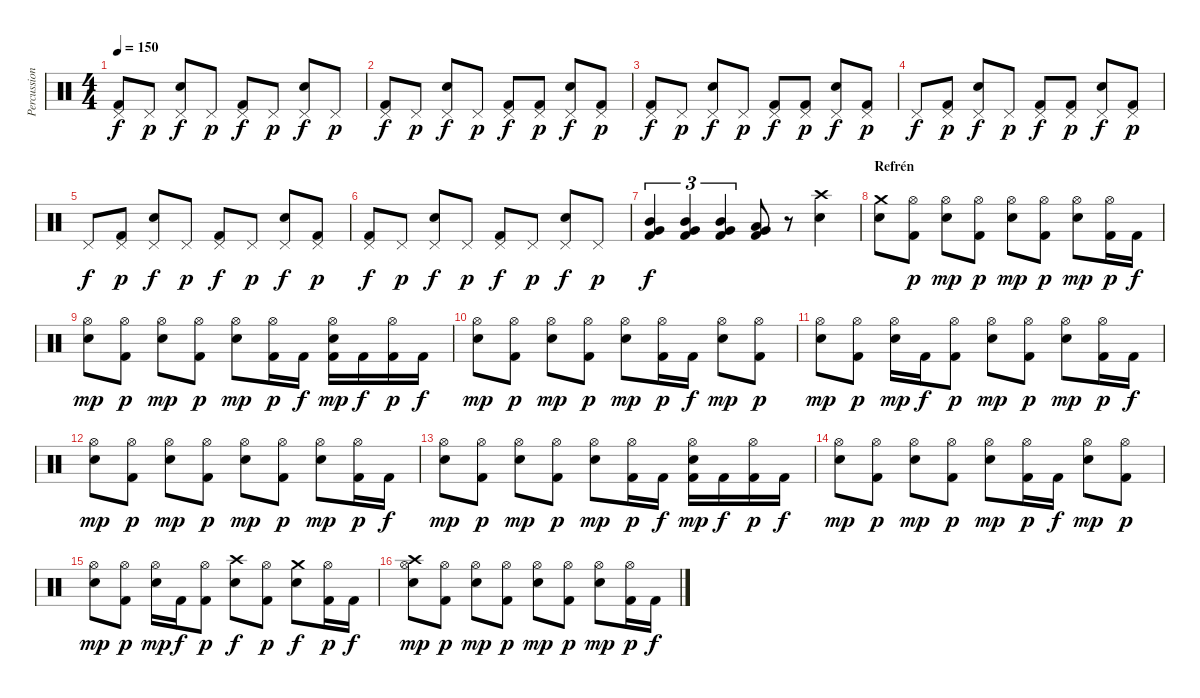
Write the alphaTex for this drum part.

\track ("Percussion" "Percussion") {instrument percussion}
\staff {score}
\articulation defaults
\ts (4 4)
\tempo 150
\clef neutral
\ks c
("Pedal Hi-Hat (hit)" "Kick (hit) 2").8{dy f} "Pedal Hi-Hat (hit)".8{dy p} ("Pedal Hi-Hat (hit)" "Snare (hit) 2").8{dy f} "Pedal Hi-Hat (hit)".8{dy p} ("Pedal Hi-Hat (hit)" "Kick (hit) 2").8{dy f} "Pedal Hi-Hat (hit)".8{dy p} ("Pedal Hi-Hat (hit)" "Snare (hit) 2").8{dy f} "Pedal Hi-Hat (hit)".8{dy p} |
("Pedal Hi-Hat (hit)" "Kick (hit) 2").8{dy f} "Pedal Hi-Hat (hit)".8{dy p} ("Pedal Hi-Hat (hit)" "Snare (hit) 2").8{dy f} "Pedal Hi-Hat (hit)".8{dy p} ("Pedal Hi-Hat (hit)" "Kick (hit) 2").8{dy f} ("Pedal Hi-Hat (hit)" "Kick (hit) 2").8{dy p} ("Pedal Hi-Hat (hit)" "Snare (hit) 2").8{dy f} ("Pedal Hi-Hat (hit)" "Kick (hit) 2").8{dy p} |
("Pedal Hi-Hat (hit)" "Kick (hit) 2").8{dy f} "Pedal Hi-Hat (hit)".8{dy p} ("Pedal Hi-Hat (hit)" "Snare (hit) 2").8{dy f} "Pedal Hi-Hat (hit)".8{dy p} ("Pedal Hi-Hat (hit)" "Kick (hit) 2").8{dy f} ("Pedal Hi-Hat (hit)" "Kick (hit) 2").8{dy p} ("Pedal Hi-Hat (hit)" "Snare (hit) 2").8{dy f} ("Pedal Hi-Hat (hit)" "Kick (hit) 2").8{dy p} |
"Pedal Hi-Hat (hit)".8{dy f} ("Pedal Hi-Hat (hit)" "Kick (hit) 2").8{dy p} ("Pedal Hi-Hat (hit)" "Snare (hit) 2").8{dy f} "Pedal Hi-Hat (hit)".8{dy p} ("Pedal Hi-Hat (hit)" "Kick (hit) 2").8{dy f} ("Pedal Hi-Hat (hit)" "Kick (hit) 2").8{dy p} ("Pedal Hi-Hat (hit)" "Snare (hit) 2").8{dy f} ("Pedal Hi-Hat (hit)" "Kick (hit) 2").8{dy p} |
"Pedal Hi-Hat (hit)".8{dy f} ("Pedal Hi-Hat (hit)" "Kick (hit) 2").8{dy p} ("Pedal Hi-Hat (hit)" "Snare (hit) 2").8{dy f} "Pedal Hi-Hat (hit)".8{dy p} ("Pedal Hi-Hat (hit)" "Kick (hit) 2").8{dy f} "Pedal Hi-Hat (hit)".8{dy p} ("Pedal Hi-Hat (hit)" "Snare (hit) 2").8{dy f} ("Pedal Hi-Hat (hit)" "Kick (hit) 2").8{dy p} |
("Pedal Hi-Hat (hit)" "Kick (hit) 2").8{dy f} "Pedal Hi-Hat (hit)".8{dy p} ("Pedal Hi-Hat (hit)" "Snare (hit) 2").8{dy f} "Pedal Hi-Hat (hit)".8{dy p} ("Pedal Hi-Hat (hit)" "Kick (hit) 2").8{dy f} "Pedal Hi-Hat (hit)".8{dy p} ("Pedal Hi-Hat (hit)" "Snare (hit) 2").8{dy f} "Pedal Hi-Hat (hit)".8{dy p} |
("Kick (hit) 2" "Very Low Tom (hit)" "Mid Tom (hit)").4{tu (3 2) dy f} ("Kick (hit) 2" "Very Low Tom (hit)" "Mid Tom (hit)").4{tu (3 2)} ("Kick (hit) 2" "Very Low Tom (hit)" "Mid Tom (hit)").4{tu (3 2)} ("Kick (hit) 2" "Low Tom (hit)" "Very Low Tom (hit)").8 r.8 ("Crash high (hit)" "Snare (hit) 2").4 |
\section ("" "Refrén")
("Crash medium (hit)" "Snare (hit) 2").8 ("Hi-Hat (open)" "Kick (hit) 2").8{dy p} ("Hi-Hat (open)" "Snare (hit) 2").8{dy mp} ("Hi-Hat (open)" "Kick (hit) 2").8{dy p} ("Hi-Hat (open)" "Snare (hit) 2").8{dy mp} ("Hi-Hat (open)" "Kick (hit) 2").8{dy p} ("Hi-Hat (open)" "Snare (hit) 2").8{dy mp} ("Hi-Hat (open)" "Kick (hit) 2").16{dy p} "Kick (hit) 2".16{dy f} |
("Hi-Hat (open)" "Snare (hit) 2").8{dy mp} ("Hi-Hat (open)" "Kick (hit) 2").8{dy p} ("Hi-Hat (open)" "Snare (hit) 2").8{dy mp} ("Hi-Hat (open)" "Kick (hit) 2").8{dy p} ("Hi-Hat (open)" "Snare (hit) 2").8{dy mp} ("Hi-Hat (open)" "Kick (hit) 2").16{dy p} "Kick (hit) 2".16{dy f} ("Hi-Hat (open)" "Kick (hit) 2" "Snare (hit) 2").16{dy mp} "Kick (hit) 2".16{dy f} ("Hi-Hat (open)" "Kick (hit) 2").16{dy p} "Kick (hit) 2".16{dy f} |
("Hi-Hat (open)" "Snare (hit) 2").8{dy mp} ("Hi-Hat (open)" "Kick (hit) 2").8{dy p} ("Hi-Hat (open)" "Snare (hit) 2").8{dy mp} ("Hi-Hat (open)" "Kick (hit) 2").8{dy p} ("Hi-Hat (open)" "Snare (hit) 2").8{dy mp} ("Hi-Hat (open)" "Kick (hit) 2").16{dy p} "Kick (hit) 2".16{dy f} ("Hi-Hat (open)" "Snare (hit) 2").8{dy mp} ("Hi-Hat (open)" "Kick (hit) 2").8{dy p} |
("Hi-Hat (open)" "Snare (hit) 2").8{dy mp} ("Hi-Hat (open)" "Kick (hit) 2").8{dy p} ("Hi-Hat (open)" "Snare (hit) 2").16{dy mp} "Kick (hit) 2".16{dy f} ("Hi-Hat (open)" "Kick (hit) 2").8{dy p} ("Hi-Hat (open)" "Snare (hit) 2").8{dy mp} ("Hi-Hat (open)" "Kick (hit) 2").8{dy p} ("Hi-Hat (open)" "Snare (hit) 2").8{dy mp} ("Hi-Hat (open)" "Kick (hit) 2").16{dy p} "Kick (hit) 2".16{dy f} |
("Hi-Hat (open)" "Snare (hit) 2").8{dy mp} ("Hi-Hat (open)" "Kick (hit) 2").8{dy p} ("Hi-Hat (open)" "Snare (hit) 2").8{dy mp} ("Hi-Hat (open)" "Kick (hit) 2").8{dy p} ("Hi-Hat (open)" "Snare (hit) 2").8{dy mp} ("Hi-Hat (open)" "Kick (hit) 2").8{dy p} ("Hi-Hat (open)" "Snare (hit) 2").8{dy mp} ("Hi-Hat (open)" "Kick (hit) 2").16{dy p} "Kick (hit) 2".16{dy f} |
("Hi-Hat (open)" "Snare (hit) 2").8{dy mp} ("Hi-Hat (open)" "Kick (hit) 2").8{dy p} ("Hi-Hat (open)" "Snare (hit) 2").8{dy mp} ("Hi-Hat (open)" "Kick (hit) 2").8{dy p} ("Hi-Hat (open)" "Snare (hit) 2").8{dy mp} ("Hi-Hat (open)" "Kick (hit) 2").16{dy p} "Kick (hit) 2".16{dy f} ("Hi-Hat (open)" "Kick (hit) 2" "Snare (hit) 2").16{dy mp} "Kick (hit) 2".16{dy f} ("Hi-Hat (open)" "Kick (hit) 2").16{dy p} "Kick (hit) 2".16{dy f} |
("Hi-Hat (open)" "Snare (hit) 2").8{dy mp} ("Hi-Hat (open)" "Kick (hit) 2").8{dy p} ("Hi-Hat (open)" "Snare (hit) 2").8{dy mp} ("Hi-Hat (open)" "Kick (hit) 2").8{dy p} ("Hi-Hat (open)" "Snare (hit) 2").8{dy mp} ("Hi-Hat (open)" "Kick (hit) 2").16{dy p} "Kick (hit) 2".16{dy f} ("Hi-Hat (open)" "Snare (hit) 2").8{dy mp} ("Hi-Hat (open)" "Kick (hit) 2").8{dy p} |
("Hi-Hat (open)" "Snare (hit) 2").8{dy mp} ("Hi-Hat (open)" "Kick (hit) 2").8{dy p} ("Hi-Hat (open)" "Snare (hit) 2").16{dy mp} "Kick (hit) 2".16{dy f} ("Hi-Hat (open)" "Kick (hit) 2").8{dy p} ("Crash high (hit)" "Snare (hit) 2").8{dy f} ("Hi-Hat (open)" "Kick (hit) 2").8{dy p} ("Crash medium (hit)" "Snare (hit) 2").8{dy f} ("Hi-Hat (open)" "Kick (hit) 2").16{dy p} "Kick (hit) 2".16{dy f} |
("Hi-Hat (open)" "Crash high (hit)" "Snare (hit) 2").8{dy mp} ("Hi-Hat (open)" "Kick (hit) 2").8{dy p} ("Hi-Hat (open)" "Snare (hit) 2").8{dy mp} ("Hi-Hat (open)" "Kick (hit) 2").8{dy p} ("Hi-Hat (open)" "Snare (hit) 2").8{dy mp} ("Hi-Hat (open)" "Kick (hit) 2").8{dy p} ("Hi-Hat (open)" "Snare (hit) 2").8{dy mp} ("Hi-Hat (open)" "Kick (hit) 2").16{dy p} "Kick (hit) 2".16{dy f}
